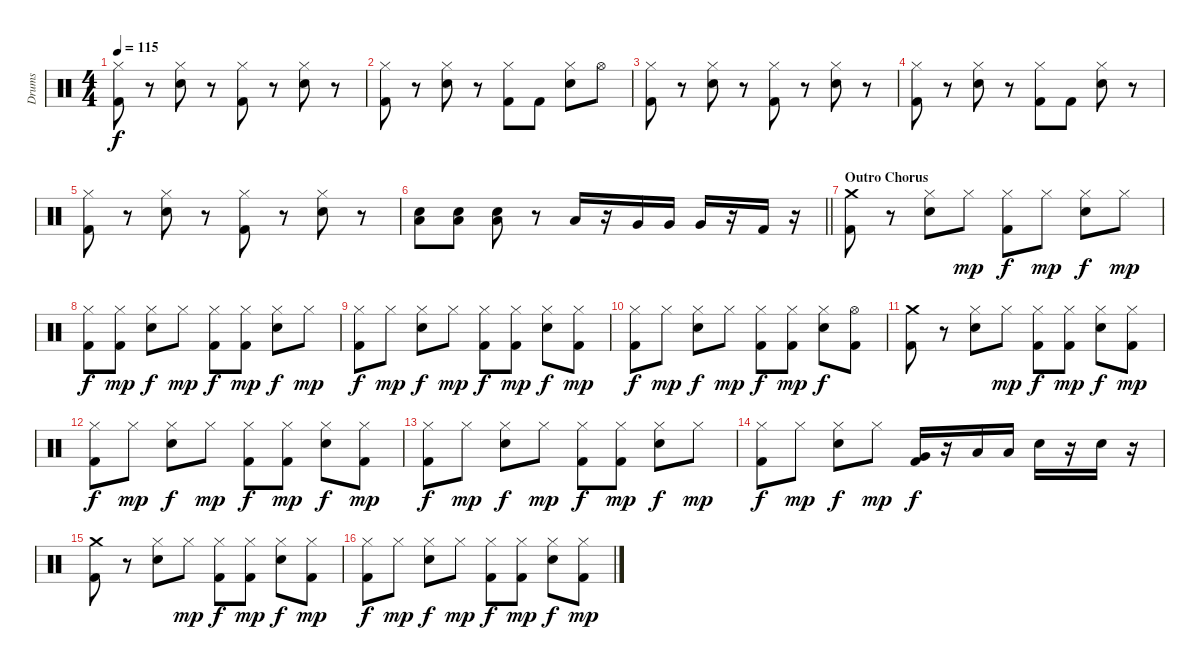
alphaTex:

\track ("Drums" "Drums") {instrument percussion}
\staff {score}
\articulation defaults
\ts (4 4)
\tempo 115
\clef neutral
\ks c
("Hi-Hat (closed)" "Kick (hit) 2").8{dy f} r.8 ("Hi-Hat (closed)" "Snare (hit) 2").8 r.8 ("Hi-Hat (closed)" "Kick (hit) 2").8 r.8 ("Hi-Hat (closed)" "Snare (hit) 2").8 r.8 |
("Hi-Hat (closed)" "Kick (hit) 2").8 r.8 ("Hi-Hat (closed)" "Snare (hit) 2").8 r.8 ("Hi-Hat (closed)" "Kick (hit) 2").8 "Kick (hit) 2".8 ("Hi-Hat (closed)" "Snare (hit) 2").8 "Hi-Hat (open)".8 |
("Hi-Hat (closed)" "Kick (hit) 2").8 r.8 ("Hi-Hat (closed)" "Snare (hit) 2").8 r.8 ("Hi-Hat (closed)" "Kick (hit) 2").8 r.8 ("Hi-Hat (closed)" "Snare (hit) 2").8 r.8 |
("Hi-Hat (closed)" "Kick (hit) 2").8 r.8 ("Hi-Hat (closed)" "Snare (hit) 2").8 r.8 ("Hi-Hat (closed)" "Kick (hit) 2").8 "Kick (hit) 2".8 ("Hi-Hat (closed)" "Snare (hit) 2").8 r.8 |
("Hi-Hat (closed)" "Kick (hit) 2").8 r.8 ("Hi-Hat (closed)" "Snare (hit) 2").8 r.8 ("Hi-Hat (closed)" "Kick (hit) 2").8 r.8 ("Hi-Hat (closed)" "Snare (hit) 2").8 r.8 |
\barLineRight lightlight
("Snare (hit) 2" "Low Floor Tom (hit)").8 ("Snare (hit) 2" "Low Floor Tom (hit)").8 ("Snare (hit) 2" "Low Floor Tom (hit)").8 r.8 "Low Tom (hit)".16 r.16 "Very Low Tom (hit)".16 "Very Low Tom (hit)".16 "Very Low Tom (hit)".16 r.16 "Kick (hit) 2".16 r.16 |
\section ("" "Outro Chorus")
("Crash medium (hit)" "Kick (hit) 2").8 r.8 ("Hi-Hat (closed)" "Snare (hit) 2").8 "Hi-Hat (closed)".8{dy mp} ("Hi-Hat (closed)" "Kick (hit) 2").8{dy f} "Hi-Hat (closed)".8{dy mp} ("Hi-Hat (closed)" "Snare (hit) 2").8{dy f} "Hi-Hat (closed)".8{dy mp} |
("Hi-Hat (closed)" "Kick (hit) 2").8{dy f} ("Hi-Hat (closed)" "Kick (hit) 2").8{dy mp} ("Hi-Hat (closed)" "Snare (hit) 2").8{dy f} "Hi-Hat (closed)".8{dy mp} ("Hi-Hat (closed)" "Kick (hit) 2").8{dy f} ("Hi-Hat (closed)" "Kick (hit) 2").8{dy mp} ("Hi-Hat (closed)" "Snare (hit) 2").8{dy f} "Hi-Hat (closed)".8{dy mp} |
("Hi-Hat (closed)" "Kick (hit) 2").8{dy f} "Hi-Hat (closed)".8{dy mp} ("Hi-Hat (closed)" "Snare (hit) 2").8{dy f} "Hi-Hat (closed)".8{dy mp} ("Hi-Hat (closed)" "Kick (hit) 2").8{dy f} ("Hi-Hat (closed)" "Kick (hit) 2").8{dy mp} ("Hi-Hat (closed)" "Snare (hit) 2").8{dy f} ("Hi-Hat (closed)" "Kick (hit) 2").8{dy mp} |
("Hi-Hat (closed)" "Kick (hit) 2").8{dy f} "Hi-Hat (closed)".8{dy mp} ("Hi-Hat (closed)" "Snare (hit) 2").8{dy f} "Hi-Hat (closed)".8{dy mp} ("Hi-Hat (closed)" "Kick (hit) 2").8{dy f} ("Hi-Hat (closed)" "Kick (hit) 2").8{dy mp} ("Hi-Hat (closed)" "Snare (hit) 2").8{dy f} ("Hi-Hat (open)" "Kick (hit) 2").8 |
("Crash medium (hit)" "Kick (hit) 2").8 r.8 ("Hi-Hat (closed)" "Snare (hit) 2").8 "Hi-Hat (closed)".8{dy mp} ("Hi-Hat (closed)" "Kick (hit) 2").8{dy f} ("Hi-Hat (closed)" "Kick (hit) 2").8{dy mp} ("Hi-Hat (closed)" "Snare (hit) 2").8{dy f} ("Hi-Hat (closed)" "Kick (hit) 2").8{dy mp} |
("Hi-Hat (closed)" "Kick (hit) 2").8{dy f} "Hi-Hat (closed)".8{dy mp} ("Hi-Hat (closed)" "Snare (hit) 2").8{dy f} "Hi-Hat (closed)".8{dy mp} ("Hi-Hat (closed)" "Kick (hit) 2").8{dy f} ("Hi-Hat (closed)" "Kick (hit) 2").8{dy mp} ("Hi-Hat (closed)" "Snare (hit) 2").8{dy f} ("Hi-Hat (closed)" "Kick (hit) 2").8{dy mp} |
("Hi-Hat (closed)" "Kick (hit) 2").8{dy f} "Hi-Hat (closed)".8{dy mp} ("Hi-Hat (closed)" "Snare (hit) 2").8{dy f} "Hi-Hat (closed)".8{dy mp} ("Hi-Hat (closed)" "Kick (hit) 2").8{dy f} ("Hi-Hat (closed)" "Kick (hit) 2").8{dy mp} ("Hi-Hat (closed)" "Snare (hit) 2").8{dy f} "Hi-Hat (closed)".8{dy mp} |
("Hi-Hat (closed)" "Kick (hit) 2").8{dy f} "Hi-Hat (closed)".8{dy mp} ("Hi-Hat (closed)" "Snare (hit) 2").8{dy f} "Hi-Hat (closed)".8{dy mp} ("Very Low Tom (hit)" "Kick (hit) 2").16{dy f} r.16 "Low Tom (hit)".16 "Low Tom (hit)".16 "Snare (hit) 2".16 r.16 "Snare (hit) 2".16 r.16 |
("Crash medium (hit)" "Kick (hit) 2").8 r.8 ("Hi-Hat (closed)" "Snare (hit) 2").8 "Hi-Hat (closed)".8{dy mp} ("Hi-Hat (closed)" "Kick (hit) 2").8{dy f} ("Hi-Hat (closed)" "Kick (hit) 2").8{dy mp} ("Hi-Hat (closed)" "Snare (hit) 2").8{dy f} ("Hi-Hat (closed)" "Kick (hit) 2").8{dy mp} |
("Hi-Hat (closed)" "Kick (hit) 2").8{dy f} "Hi-Hat (closed)".8{dy mp} ("Hi-Hat (closed)" "Snare (hit) 2").8{dy f} "Hi-Hat (closed)".8{dy mp} ("Hi-Hat (closed)" "Kick (hit) 2").8{dy f} ("Hi-Hat (closed)" "Kick (hit) 2").8{dy mp} ("Hi-Hat (closed)" "Snare (hit) 2").8{dy f} ("Hi-Hat (closed)" "Kick (hit) 2").8{dy mp}
